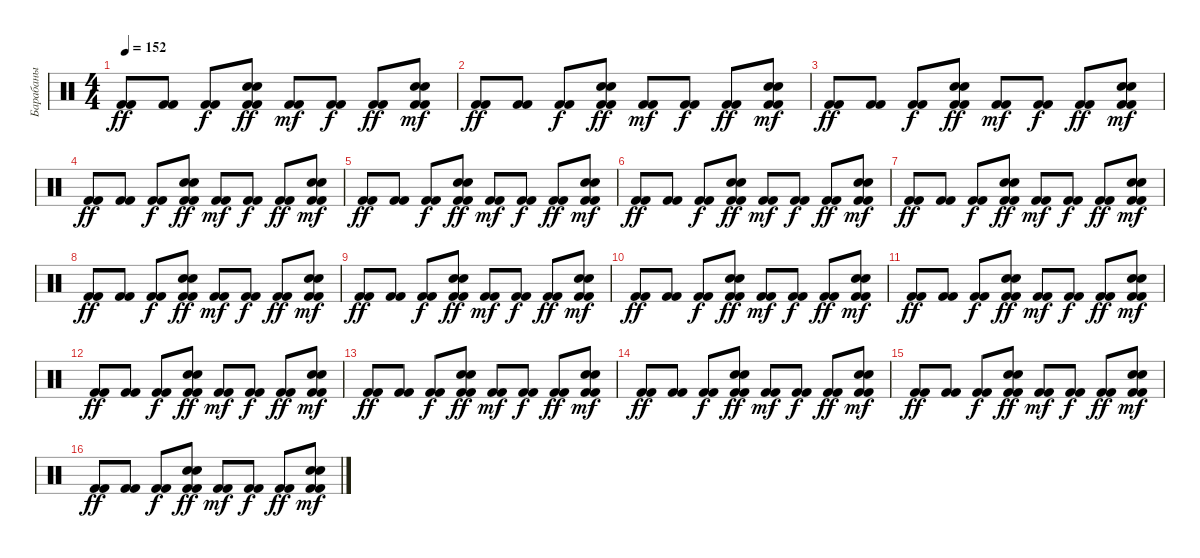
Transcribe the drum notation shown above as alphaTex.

\track ("Барабаны" "Барабаны") {instrument percussion}
\staff {score}
\articulation defaults
\ts (4 4)
\tempo 152
\clef neutral
\ks c
("Kick (hit) 2" "Kick (hit) 2").8{dy ff} ("Kick (hit) 2" "Kick (hit) 2").8 ("Kick (hit) 2" "Kick (hit) 2").8{dy f} ("Kick (hit) 2" "Kick (hit) 2" "Snare (hit) 2" "Snare (hit) 2").8{dy ff} ("Kick (hit) 2" "Kick (hit) 2").8{dy mf} ("Kick (hit) 2" "Kick (hit) 2").8{dy f} ("Kick (hit) 2" "Kick (hit) 2").8{dy ff} ("Kick (hit) 2" "Kick (hit) 2" "Snare (hit) 2" "Snare (hit) 2").8{dy mf} |
("Kick (hit) 2" "Kick (hit) 2").8{dy ff} ("Kick (hit) 2" "Kick (hit) 2").8 ("Kick (hit) 2" "Kick (hit) 2").8{dy f} ("Kick (hit) 2" "Kick (hit) 2" "Snare (hit) 2" "Snare (hit) 2").8{dy ff} ("Kick (hit) 2" "Kick (hit) 2").8{dy mf} ("Kick (hit) 2" "Kick (hit) 2").8{dy f} ("Kick (hit) 2" "Kick (hit) 2").8{dy ff} ("Kick (hit) 2" "Kick (hit) 2" "Snare (hit) 2" "Snare (hit) 2").8{dy mf} |
("Kick (hit) 2" "Kick (hit) 2").8{dy ff} ("Kick (hit) 2" "Kick (hit) 2").8 ("Kick (hit) 2" "Kick (hit) 2").8{dy f} ("Kick (hit) 2" "Kick (hit) 2" "Snare (hit) 2" "Snare (hit) 2").8{dy ff} ("Kick (hit) 2" "Kick (hit) 2").8{dy mf} ("Kick (hit) 2" "Kick (hit) 2").8{dy f} ("Kick (hit) 2" "Kick (hit) 2").8{dy ff} ("Kick (hit) 2" "Kick (hit) 2" "Snare (hit) 2" "Snare (hit) 2").8{dy mf} |
("Kick (hit) 2" "Kick (hit) 2").8{dy ff} ("Kick (hit) 2" "Kick (hit) 2").8 ("Kick (hit) 2" "Kick (hit) 2").8{dy f} ("Kick (hit) 2" "Kick (hit) 2" "Snare (hit) 2" "Snare (hit) 2").8{dy ff} ("Kick (hit) 2" "Kick (hit) 2").8{dy mf} ("Kick (hit) 2" "Kick (hit) 2").8{dy f} ("Kick (hit) 2" "Kick (hit) 2").8{dy ff} ("Kick (hit) 2" "Kick (hit) 2" "Snare (hit) 2" "Snare (hit) 2").8{dy mf} |
("Kick (hit) 2" "Kick (hit) 2").8{dy ff} ("Kick (hit) 2" "Kick (hit) 2").8 ("Kick (hit) 2" "Kick (hit) 2").8{dy f} ("Kick (hit) 2" "Kick (hit) 2" "Snare (hit) 2" "Snare (hit) 2").8{dy ff} ("Kick (hit) 2" "Kick (hit) 2").8{dy mf} ("Kick (hit) 2" "Kick (hit) 2").8{dy f} ("Kick (hit) 2" "Kick (hit) 2").8{dy ff} ("Kick (hit) 2" "Kick (hit) 2" "Snare (hit) 2" "Snare (hit) 2").8{dy mf} |
("Kick (hit) 2" "Kick (hit) 2").8{dy ff} ("Kick (hit) 2" "Kick (hit) 2").8 ("Kick (hit) 2" "Kick (hit) 2").8{dy f} ("Kick (hit) 2" "Kick (hit) 2" "Snare (hit) 2" "Snare (hit) 2").8{dy ff} ("Kick (hit) 2" "Kick (hit) 2").8{dy mf} ("Kick (hit) 2" "Kick (hit) 2").8{dy f} ("Kick (hit) 2" "Kick (hit) 2").8{dy ff} ("Kick (hit) 2" "Kick (hit) 2" "Snare (hit) 2" "Snare (hit) 2").8{dy mf} |
("Kick (hit) 2" "Kick (hit) 2").8{dy ff} ("Kick (hit) 2" "Kick (hit) 2").8 ("Kick (hit) 2" "Kick (hit) 2").8{dy f} ("Kick (hit) 2" "Kick (hit) 2" "Snare (hit) 2" "Snare (hit) 2").8{dy ff} ("Kick (hit) 2" "Kick (hit) 2").8{dy mf} ("Kick (hit) 2" "Kick (hit) 2").8{dy f} ("Kick (hit) 2" "Kick (hit) 2").8{dy ff} ("Kick (hit) 2" "Kick (hit) 2" "Snare (hit) 2" "Snare (hit) 2").8{dy mf} |
("Kick (hit) 2" "Kick (hit) 2").8{dy ff} ("Kick (hit) 2" "Kick (hit) 2").8 ("Kick (hit) 2" "Kick (hit) 2").8{dy f} ("Kick (hit) 2" "Kick (hit) 2" "Snare (hit) 2" "Snare (hit) 2").8{dy ff} ("Kick (hit) 2" "Kick (hit) 2").8{dy mf} ("Kick (hit) 2" "Kick (hit) 2").8{dy f} ("Kick (hit) 2" "Kick (hit) 2").8{dy ff} ("Kick (hit) 2" "Kick (hit) 2" "Snare (hit) 2" "Snare (hit) 2").8{dy mf} |
("Kick (hit) 2" "Kick (hit) 2").8{dy ff} ("Kick (hit) 2" "Kick (hit) 2").8 ("Kick (hit) 2" "Kick (hit) 2").8{dy f} ("Kick (hit) 2" "Kick (hit) 2" "Snare (hit) 2" "Snare (hit) 2").8{dy ff} ("Kick (hit) 2" "Kick (hit) 2").8{dy mf} ("Kick (hit) 2" "Kick (hit) 2").8{dy f} ("Kick (hit) 2" "Kick (hit) 2").8{dy ff} ("Kick (hit) 2" "Kick (hit) 2" "Snare (hit) 2" "Snare (hit) 2").8{dy mf} |
("Kick (hit) 2" "Kick (hit) 2").8{dy ff} ("Kick (hit) 2" "Kick (hit) 2").8 ("Kick (hit) 2" "Kick (hit) 2").8{dy f} ("Kick (hit) 2" "Kick (hit) 2" "Snare (hit) 2" "Snare (hit) 2").8{dy ff} ("Kick (hit) 2" "Kick (hit) 2").8{dy mf} ("Kick (hit) 2" "Kick (hit) 2").8{dy f} ("Kick (hit) 2" "Kick (hit) 2").8{dy ff} ("Kick (hit) 2" "Kick (hit) 2" "Snare (hit) 2" "Snare (hit) 2").8{dy mf} |
("Kick (hit) 2" "Kick (hit) 2").8{dy ff} ("Kick (hit) 2" "Kick (hit) 2").8 ("Kick (hit) 2" "Kick (hit) 2").8{dy f} ("Kick (hit) 2" "Kick (hit) 2" "Snare (hit) 2" "Snare (hit) 2").8{dy ff} ("Kick (hit) 2" "Kick (hit) 2").8{dy mf} ("Kick (hit) 2" "Kick (hit) 2").8{dy f} ("Kick (hit) 2" "Kick (hit) 2").8{dy ff} ("Kick (hit) 2" "Kick (hit) 2" "Snare (hit) 2" "Snare (hit) 2").8{dy mf} |
("Kick (hit) 2" "Kick (hit) 2").8{dy ff} ("Kick (hit) 2" "Kick (hit) 2").8 ("Kick (hit) 2" "Kick (hit) 2").8{dy f} ("Kick (hit) 2" "Kick (hit) 2" "Snare (hit) 2" "Snare (hit) 2").8{dy ff} ("Kick (hit) 2" "Kick (hit) 2").8{dy mf} ("Kick (hit) 2" "Kick (hit) 2").8{dy f} ("Kick (hit) 2" "Kick (hit) 2").8{dy ff} ("Kick (hit) 2" "Kick (hit) 2" "Snare (hit) 2" "Snare (hit) 2").8{dy mf} |
("Kick (hit) 2" "Kick (hit) 2").8{dy ff} ("Kick (hit) 2" "Kick (hit) 2").8 ("Kick (hit) 2" "Kick (hit) 2").8{dy f} ("Kick (hit) 2" "Kick (hit) 2" "Snare (hit) 2" "Snare (hit) 2").8{dy ff} ("Kick (hit) 2" "Kick (hit) 2").8{dy mf} ("Kick (hit) 2" "Kick (hit) 2").8{dy f} ("Kick (hit) 2" "Kick (hit) 2").8{dy ff} ("Kick (hit) 2" "Kick (hit) 2" "Snare (hit) 2" "Snare (hit) 2").8{dy mf} |
("Kick (hit) 2" "Kick (hit) 2").8{dy ff} ("Kick (hit) 2" "Kick (hit) 2").8 ("Kick (hit) 2" "Kick (hit) 2").8{dy f} ("Kick (hit) 2" "Kick (hit) 2" "Snare (hit) 2" "Snare (hit) 2").8{dy ff} ("Kick (hit) 2" "Kick (hit) 2").8{dy mf} ("Kick (hit) 2" "Kick (hit) 2").8{dy f} ("Kick (hit) 2" "Kick (hit) 2").8{dy ff} ("Kick (hit) 2" "Kick (hit) 2" "Snare (hit) 2" "Snare (hit) 2").8{dy mf} |
("Kick (hit) 2" "Kick (hit) 2").8{dy ff} ("Kick (hit) 2" "Kick (hit) 2").8 ("Kick (hit) 2" "Kick (hit) 2").8{dy f} ("Kick (hit) 2" "Kick (hit) 2" "Snare (hit) 2" "Snare (hit) 2").8{dy ff} ("Kick (hit) 2" "Kick (hit) 2").8{dy mf} ("Kick (hit) 2" "Kick (hit) 2").8{dy f} ("Kick (hit) 2" "Kick (hit) 2").8{dy ff} ("Kick (hit) 2" "Kick (hit) 2" "Snare (hit) 2" "Snare (hit) 2").8{dy mf} |
("Kick (hit) 2" "Kick (hit) 2").8{dy ff} ("Kick (hit) 2" "Kick (hit) 2").8 ("Kick (hit) 2" "Kick (hit) 2").8{dy f} ("Kick (hit) 2" "Kick (hit) 2" "Snare (hit) 2" "Snare (hit) 2").8{dy ff} ("Kick (hit) 2" "Kick (hit) 2").8{dy mf} ("Kick (hit) 2" "Kick (hit) 2").8{dy f} ("Kick (hit) 2" "Kick (hit) 2").8{dy ff} ("Kick (hit) 2" "Kick (hit) 2" "Snare (hit) 2" "Snare (hit) 2").8{dy mf}
